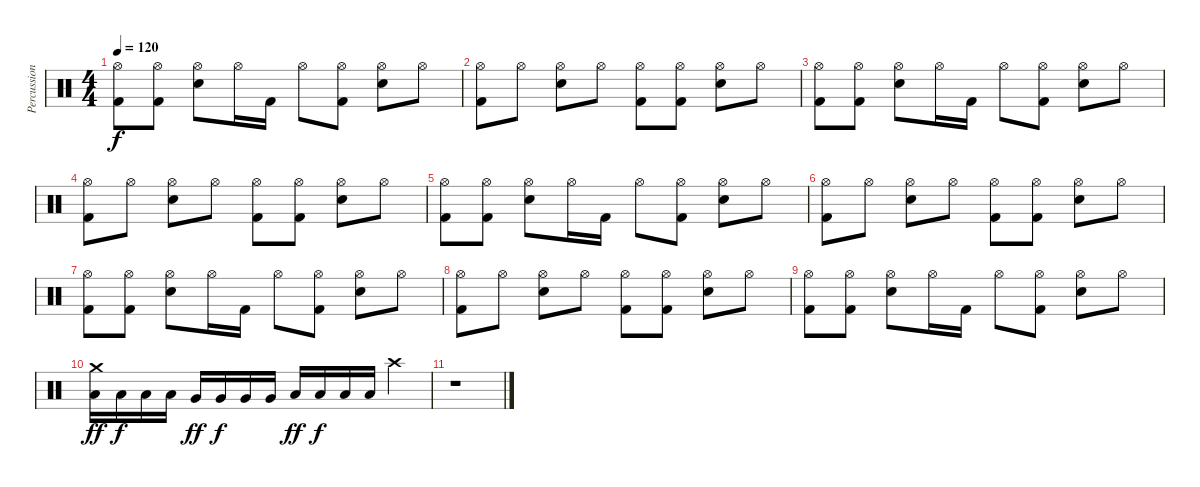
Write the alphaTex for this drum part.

\track ("Percussion" "Percussion") {instrument percussion}
\staff {score}
\articulation defaults
\ts (4 4)
\tempo 120
\clef neutral
\ks c
("Kick (hit) 2" "Hi-Hat (open)").8{dy f} ("Kick (hit) 2" "Hi-Hat (open)").8 ("Snare (hit) 2" "Hi-Hat (open)").8 "Hi-Hat (open)".16 "Kick (hit) 2".16 "Hi-Hat (open)".8 ("Kick (hit) 2" "Hi-Hat (open)").8 ("Snare (hit) 2" "Hi-Hat (open)").8 "Hi-Hat (open)".8 |
("Kick (hit) 2" "Hi-Hat (open)").8 "Hi-Hat (open)".8 ("Snare (hit) 2" "Hi-Hat (open)").8 "Hi-Hat (open)".8 ("Kick (hit) 2" "Hi-Hat (open)").8 ("Kick (hit) 2" "Hi-Hat (open)").8 ("Snare (hit) 2" "Hi-Hat (open)").8 "Hi-Hat (open)".8 |
("Kick (hit) 2" "Hi-Hat (open)").8 ("Kick (hit) 2" "Hi-Hat (open)").8 ("Snare (hit) 2" "Hi-Hat (open)").8 "Hi-Hat (open)".16 "Kick (hit) 2".16 "Hi-Hat (open)".8 ("Kick (hit) 2" "Hi-Hat (open)").8 ("Snare (hit) 2" "Hi-Hat (open)").8 "Hi-Hat (open)".8 |
("Kick (hit) 2" "Hi-Hat (open)").8 "Hi-Hat (open)".8 ("Snare (hit) 2" "Hi-Hat (open)").8 "Hi-Hat (open)".8 ("Kick (hit) 2" "Hi-Hat (open)").8 ("Kick (hit) 2" "Hi-Hat (open)").8 ("Snare (hit) 2" "Hi-Hat (open)").8 "Hi-Hat (open)".8 |
("Kick (hit) 2" "Hi-Hat (open)").8 ("Kick (hit) 2" "Hi-Hat (open)").8 ("Snare (hit) 2" "Hi-Hat (open)").8 "Hi-Hat (open)".16 "Kick (hit) 2".16 "Hi-Hat (open)".8 ("Kick (hit) 2" "Hi-Hat (open)").8 ("Snare (hit) 2" "Hi-Hat (open)").8 "Hi-Hat (open)".8 |
("Kick (hit) 2" "Hi-Hat (open)").8 "Hi-Hat (open)".8 ("Snare (hit) 2" "Hi-Hat (open)").8 "Hi-Hat (open)".8 ("Kick (hit) 2" "Hi-Hat (open)").8 ("Kick (hit) 2" "Hi-Hat (open)").8 ("Snare (hit) 2" "Hi-Hat (open)").8 "Hi-Hat (open)".8 |
("Kick (hit) 2" "Hi-Hat (open)").8 ("Kick (hit) 2" "Hi-Hat (open)").8 ("Snare (hit) 2" "Hi-Hat (open)").8 "Hi-Hat (open)".16 "Kick (hit) 2".16 "Hi-Hat (open)".8 ("Kick (hit) 2" "Hi-Hat (open)").8 ("Snare (hit) 2" "Hi-Hat (open)").8 "Hi-Hat (open)".8 |
("Kick (hit) 2" "Hi-Hat (open)").8 "Hi-Hat (open)".8 ("Snare (hit) 2" "Hi-Hat (open)").8 "Hi-Hat (open)".8 ("Kick (hit) 2" "Hi-Hat (open)").8 ("Kick (hit) 2" "Hi-Hat (open)").8 ("Snare (hit) 2" "Hi-Hat (open)").8 "Hi-Hat (open)".8 |
("Kick (hit) 2" "Hi-Hat (open)").8 ("Kick (hit) 2" "Hi-Hat (open)").8 ("Snare (hit) 2" "Hi-Hat (open)").8 "Hi-Hat (open)".16 "Kick (hit) 2".16 "Hi-Hat (open)".8 ("Kick (hit) 2" "Hi-Hat (open)").8 ("Snare (hit) 2" "Hi-Hat (open)").8 "Hi-Hat (open)".8 |
("Crash medium (hit)" "Low Tom (hit)").16{dy ff} "Low Tom (hit)".16{dy f} "Low Tom (hit)".16 "Low Tom (hit)".16 "Very Low Tom (hit)".16{dy ff} "Very Low Tom (hit)".16{dy f} "Very Low Tom (hit)".16 "Very Low Tom (hit)".16 "Low Floor Tom (hit)".16{dy ff} "Low Floor Tom (hit)".16{dy f} "Low Floor Tom (hit)".16 "Low Floor Tom (hit)".16 "Crash high (hit)".4 |
r.1
